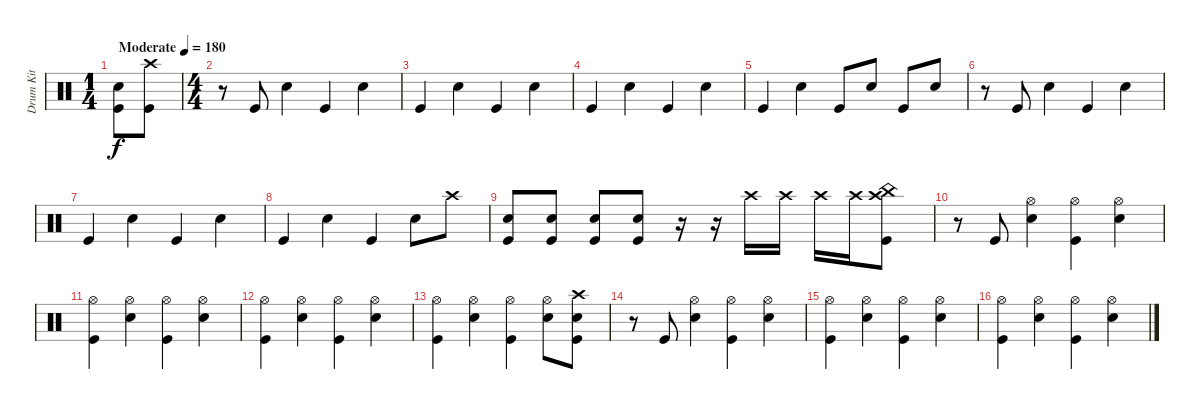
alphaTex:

\track ("Drum Kit" "Drum Kit") {instrument percussion}
\staff {score}
\articulation defaults
\ts (1 4)
\tempo (180 "Moderate")
\clef neutral
\ks c
("Kick (hit)" "Snare (hit) 2").8{dy f} ("Kick (hit)" "Crash high (hit)").8 |
\ts (4 4)
r.8 "Kick (hit)".8 "Snare (hit) 2".4 "Kick (hit)".4 "Snare (hit) 2".4 |
"Kick (hit)".4 "Snare (hit) 2".4 "Kick (hit)".4 "Snare (hit) 2".4 |
"Kick (hit)".4 "Snare (hit) 2".4 "Kick (hit)".4 "Snare (hit) 2".4 |
"Kick (hit)".4 "Snare (hit) 2".4 "Kick (hit)".8 "Snare (hit) 2".8 "Kick (hit)".8 "Snare (hit) 2".8 |
r.8 "Kick (hit)".8 "Snare (hit) 2".4 "Kick (hit)".4 "Snare (hit) 2".4 |
"Kick (hit)".4 "Snare (hit) 2".4 "Kick (hit)".4 "Snare (hit) 2".4 |
"Kick (hit)".4 "Snare (hit) 2".4 "Kick (hit)".4 "Snare (hit) 2".8 "Crash high (hit)".8 |
("Snare (hit) 2" "Kick (hit)").8 ("Snare (hit) 2" "Kick (hit)").8 ("Snare (hit) 2" "Kick (hit)").8 ("Snare (hit) 2" "Kick (hit)").8 r.16{volume 3} r.16{volume 11} "Crash high (hit)".16 "Crash high (hit)".16 "Crash high (hit)".16 "Crash high (hit)".16 ("Kick (hit)" "Crash high (hit)" "China (hit)").8 |
r.8 "Kick (hit)".8 ("Snare (hit) 2" "Hi-Hat (open)").4 ("Kick (hit)" "Hi-Hat (open)").4 ("Snare (hit) 2" "Hi-Hat (open)").4 |
("Kick (hit)" "Hi-Hat (open)").4 ("Snare (hit) 2" "Hi-Hat (open)").4 ("Kick (hit)" "Hi-Hat (open)").4 ("Snare (hit) 2" "Hi-Hat (open)").4 |
("Kick (hit)" "Hi-Hat (open)").4 ("Snare (hit) 2" "Hi-Hat (open)").4 ("Kick (hit)" "Hi-Hat (open)").4 ("Snare (hit) 2" "Hi-Hat (open)").4 |
("Kick (hit)" "Hi-Hat (open)").4 ("Snare (hit) 2" "Hi-Hat (open)").4 ("Kick (hit)" "Hi-Hat (open)").4 ("Snare (hit) 2" "Hi-Hat (open)").8 ("Snare (hit) 2" "Crash high (hit)" "Kick (hit)").8 |
r.8 "Kick (hit)".8 ("Snare (hit) 2" "Hi-Hat (open)").4 ("Kick (hit)" "Hi-Hat (open)").4 ("Snare (hit) 2" "Hi-Hat (open)").4 |
("Kick (hit)" "Hi-Hat (open)").4 ("Snare (hit) 2" "Hi-Hat (open)").4 ("Kick (hit)" "Hi-Hat (open)").4 ("Snare (hit) 2" "Hi-Hat (open)").4 |
("Kick (hit)" "Hi-Hat (open)").4 ("Snare (hit) 2" "Hi-Hat (open)").4 ("Kick (hit)" "Hi-Hat (open)").4 ("Snare (hit) 2" "Hi-Hat (open)").4
